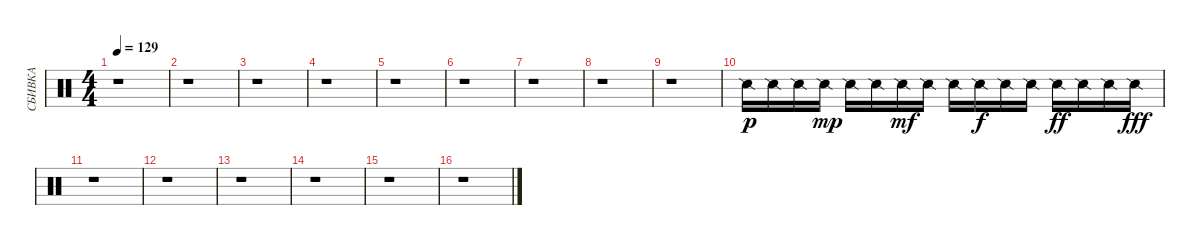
\track ("СБИВКА" "СБИВКА") {instrument percussion}
\staff {score}
\articulation defaults
\ts (4 4)
\tempo 129
\clef neutral
\ks c
r.1{dy fff} |
r.1 |
r.1 |
r.1 |
r.1 |
r.1 |
r.1 |
r.1 |
r.1 |
"Snare (side stick) 2".16{dy p} "Snare (side stick) 2".16 "Snare (side stick) 2".16 "Snare (side stick) 2".16{dy mp} "Snare (side stick) 2".16 "Snare (side stick) 2".16 "Snare (side stick) 2".16{dy mf} "Snare (side stick) 2".16 "Snare (side stick) 2".16 "Snare (side stick) 2".16{dy f} "Snare (side stick) 2".16 "Snare (side stick) 2".16 "Snare (side stick) 2".16{dy ff} "Snare (side stick) 2".16 "Snare (side stick) 2".16 "Snare (side stick) 2".16{dy fff} |
r.1 |
r.1 |
r.1 |
r.1 |
r.1 |
r.1
